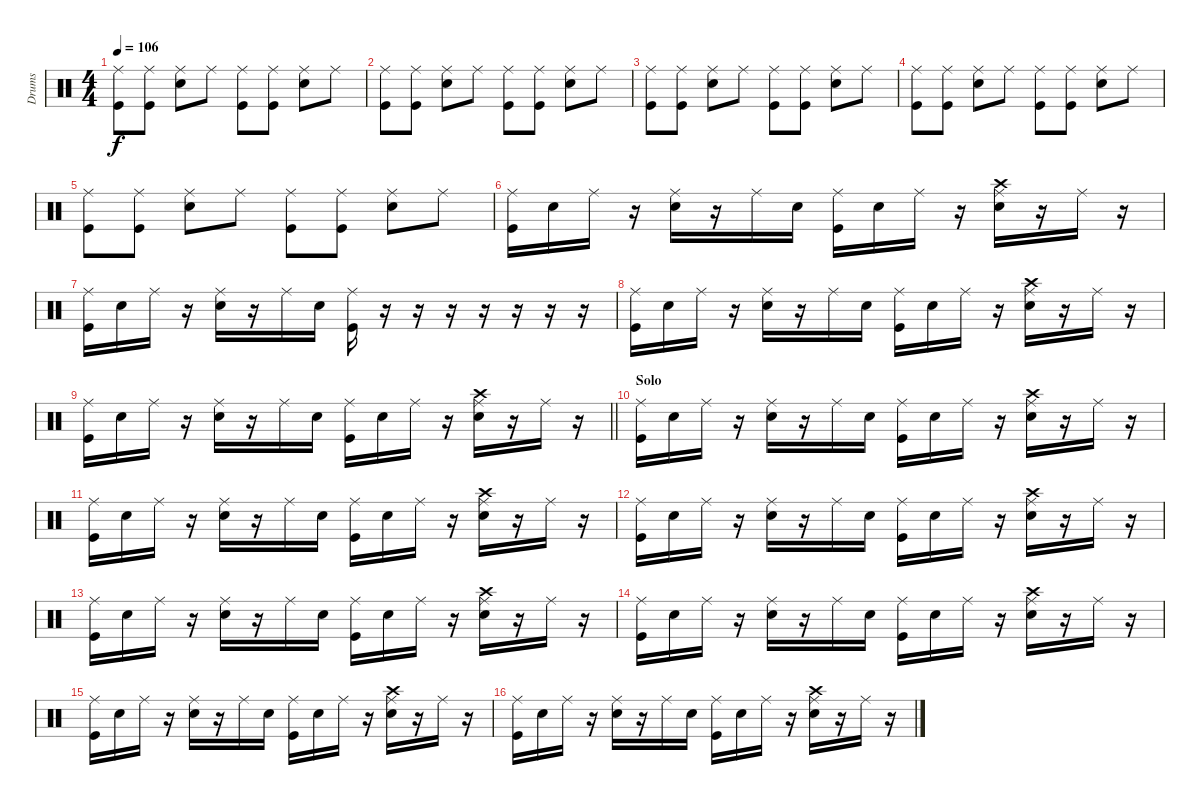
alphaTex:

\track ("Drums" "Drums") {instrument percussion}
\staff {score}
\articulation defaults
\ts (4 4)
\tempo 106
\clef neutral
\ks c
("Ride (middle)" "Kick (hit)").8{dy f} ("Ride (middle)" "Kick (hit)").8 ("Ride (middle)" "Electric Snare (hit)").8 "Ride (middle)".8 ("Ride (middle)" "Kick (hit)").8 ("Ride (middle)" "Kick (hit)").8 ("Ride (middle)" "Electric Snare (hit)").8 "Ride (middle)".8 |
("Ride (middle)" "Kick (hit)").8 ("Ride (middle)" "Kick (hit)").8 ("Ride (middle)" "Electric Snare (hit)").8 "Ride (middle)".8 ("Ride (middle)" "Kick (hit)").8 ("Ride (middle)" "Kick (hit)").8 ("Ride (middle)" "Electric Snare (hit)").8 "Ride (middle)".8 |
("Ride (middle)" "Kick (hit)").8 ("Ride (middle)" "Kick (hit)").8 ("Ride (middle)" "Electric Snare (hit)").8 "Ride (middle)".8 ("Ride (middle)" "Kick (hit)").8 ("Ride (middle)" "Kick (hit)").8 ("Ride (middle)" "Electric Snare (hit)").8 "Ride (middle)".8 |
("Ride (middle)" "Kick (hit)").8 ("Ride (middle)" "Kick (hit)").8 ("Ride (middle)" "Electric Snare (hit)").8 "Ride (middle)".8 ("Ride (middle)" "Kick (hit)").8 ("Ride (middle)" "Kick (hit)").8 ("Ride (middle)" "Electric Snare (hit)").8 "Ride (middle)".8 |
("Ride (middle)" "Kick (hit)").8 ("Ride (middle)" "Kick (hit)").8 ("Ride (middle)" "Electric Snare (hit)").8 "Ride (middle)".8 ("Ride (middle)" "Kick (hit)").8 ("Ride (middle)" "Kick (hit)").8 ("Ride (middle)" "Electric Snare (hit)").8 "Ride (middle)".8 |
("Ride (middle)" "Kick (hit)").16 "Electric Snare (hit)".16 "Ride (middle)".16 r.16 ("Ride (middle)" "Electric Snare (hit)").16 r.16 "Ride (middle)".16 "Electric Snare (hit)".16 ("Ride (middle)" "Kick (hit)").16 "Electric Snare (hit)".16 "Ride (middle)".16 r.16 ("Crash high (hit)" "Ride (middle)" "Electric Snare (hit)").16 r.16 "Ride (middle)".16 r.16 |
("Ride (middle)" "Kick (hit)").16 "Electric Snare (hit)".16 "Ride (middle)".16 r.16 ("Ride (middle)" "Electric Snare (hit)").16 r.16 "Ride (middle)".16 "Electric Snare (hit)".16 ("Ride (middle)" "Kick (hit)").16 r.16 r.16 r.16 r.16 r.16 r.16 r.16 |
("Ride (middle)" "Kick (hit)").16 "Electric Snare (hit)".16 "Ride (middle)".16 r.16 ("Ride (middle)" "Electric Snare (hit)").16 r.16 "Ride (middle)".16 "Electric Snare (hit)".16 ("Ride (middle)" "Kick (hit)").16 "Electric Snare (hit)".16 "Ride (middle)".16 r.16 ("Crash high (hit)" "Ride (middle)" "Electric Snare (hit)").16 r.16 "Ride (middle)".16 r.16 |
\barLineRight lightlight
("Ride (middle)" "Kick (hit)").16 "Electric Snare (hit)".16 "Ride (middle)".16 r.16 ("Ride (middle)" "Electric Snare (hit)").16 r.16 "Ride (middle)".16 "Electric Snare (hit)".16 ("Ride (middle)" "Kick (hit)").16 "Electric Snare (hit)".16 "Ride (middle)".16 r.16 ("Crash high (hit)" "Ride (middle)" "Electric Snare (hit)").16 r.16 "Ride (middle)".16 r.16 |
\section ("" "Solo")
("Ride (middle)" "Kick (hit)").16 "Electric Snare (hit)".16 "Ride (middle)".16 r.16 ("Ride (middle)" "Electric Snare (hit)").16 r.16 "Ride (middle)".16 "Electric Snare (hit)".16 ("Ride (middle)" "Kick (hit)").16 "Electric Snare (hit)".16 "Ride (middle)".16 r.16 ("Crash high (hit)" "Ride (middle)" "Electric Snare (hit)").16 r.16 "Ride (middle)".16 r.16 |
("Ride (middle)" "Kick (hit)").16 "Electric Snare (hit)".16 "Ride (middle)".16 r.16 ("Ride (middle)" "Electric Snare (hit)").16 r.16 "Ride (middle)".16 "Electric Snare (hit)".16 ("Ride (middle)" "Kick (hit)").16 "Electric Snare (hit)".16 "Ride (middle)".16 r.16 ("Crash high (hit)" "Ride (middle)" "Electric Snare (hit)").16 r.16 "Ride (middle)".16 r.16 |
("Ride (middle)" "Kick (hit)").16 "Electric Snare (hit)".16 "Ride (middle)".16 r.16 ("Ride (middle)" "Electric Snare (hit)").16 r.16 "Ride (middle)".16 "Electric Snare (hit)".16 ("Ride (middle)" "Kick (hit)").16 "Electric Snare (hit)".16 "Ride (middle)".16 r.16 ("Crash high (hit)" "Ride (middle)" "Electric Snare (hit)").16 r.16 "Ride (middle)".16 r.16 |
("Ride (middle)" "Kick (hit)").16 "Electric Snare (hit)".16 "Ride (middle)".16 r.16 ("Ride (middle)" "Electric Snare (hit)").16 r.16 "Ride (middle)".16 "Electric Snare (hit)".16 ("Ride (middle)" "Kick (hit)").16 "Electric Snare (hit)".16 "Ride (middle)".16 r.16 ("Crash high (hit)" "Ride (middle)" "Electric Snare (hit)").16 r.16 "Ride (middle)".16 r.16 |
("Ride (middle)" "Kick (hit)").16 "Electric Snare (hit)".16 "Ride (middle)".16 r.16 ("Ride (middle)" "Electric Snare (hit)").16 r.16 "Ride (middle)".16 "Electric Snare (hit)".16 ("Ride (middle)" "Kick (hit)").16 "Electric Snare (hit)".16 "Ride (middle)".16 r.16 ("Crash high (hit)" "Ride (middle)" "Electric Snare (hit)").16 r.16 "Ride (middle)".16 r.16 |
("Ride (middle)" "Kick (hit)").16 "Electric Snare (hit)".16 "Ride (middle)".16 r.16 ("Ride (middle)" "Electric Snare (hit)").16 r.16 "Ride (middle)".16 "Electric Snare (hit)".16 ("Ride (middle)" "Kick (hit)").16 "Electric Snare (hit)".16 "Ride (middle)".16 r.16 ("Crash high (hit)" "Ride (middle)" "Electric Snare (hit)").16 r.16 "Ride (middle)".16 r.16 |
("Ride (middle)" "Kick (hit)").16 "Electric Snare (hit)".16 "Ride (middle)".16 r.16 ("Ride (middle)" "Electric Snare (hit)").16 r.16 "Ride (middle)".16 "Electric Snare (hit)".16 ("Ride (middle)" "Kick (hit)").16 "Electric Snare (hit)".16 "Ride (middle)".16 r.16 ("Crash high (hit)" "Ride (middle)" "Electric Snare (hit)").16 r.16 "Ride (middle)".16 r.16
